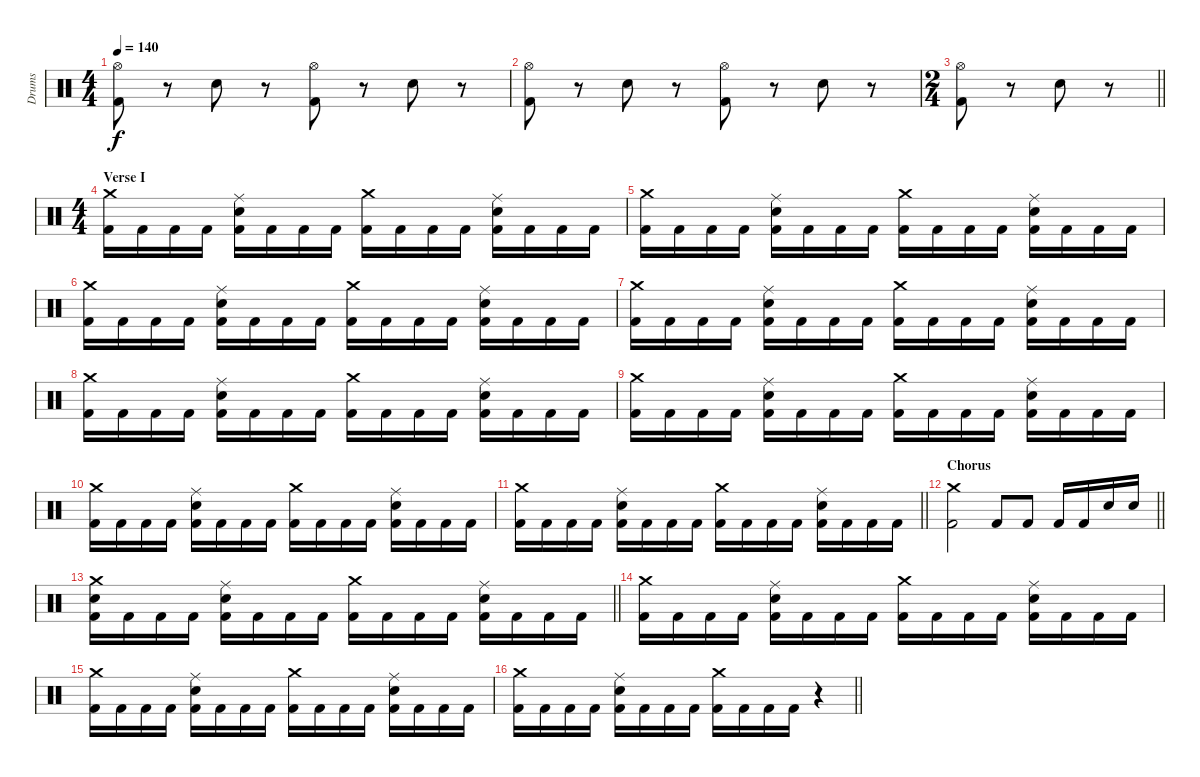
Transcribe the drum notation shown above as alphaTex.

\track ("Drums" "Drums") {instrument percussion}
\staff {score}
\articulation defaults
\ts (4 4)
\tempo 140
\clef neutral
\ks c
("Hi-Hat (open)" "Kick (hit) 2").8{dy f} r.8 "Snare (hit) 2".8 r.8 ("Hi-Hat (open)" "Kick (hit) 2").8 r.8 "Snare (hit) 2".8 r.8 |
("Hi-Hat (open)" "Kick (hit) 2").8 r.8 "Snare (hit) 2".8 r.8 ("Hi-Hat (open)" "Kick (hit) 2").8 r.8 "Snare (hit) 2".8 r.8 |
\ts (2 4)
\barLineRight lightlight
("Hi-Hat (open)" "Kick (hit) 2").8 r.8 "Snare (hit) 2".8 r.8 |
\ts (4 4)
\section ("" "Verse I")
("Crash medium (hit)" "Kick (hit) 2").16 "Kick (hit) 2".16 "Kick (hit) 2".16 "Kick (hit) 2".16 ("Ride (middle)" "Snare (hit) 2" "Kick (hit) 2").16 "Kick (hit) 2".16 "Kick (hit) 2".16 "Kick (hit) 2".16 ("Crash medium (hit)" "Kick (hit) 2").16 "Kick (hit) 2".16 "Kick (hit) 2".16 "Kick (hit) 2".16 ("Ride (middle)" "Snare (hit) 2" "Kick (hit) 2").16 "Kick (hit) 2".16 "Kick (hit) 2".16 "Kick (hit) 2".16 |
("Crash medium (hit)" "Kick (hit) 2").16 "Kick (hit) 2".16 "Kick (hit) 2".16 "Kick (hit) 2".16 ("Ride (middle)" "Snare (hit) 2" "Kick (hit) 2").16 "Kick (hit) 2".16 "Kick (hit) 2".16 "Kick (hit) 2".16 ("Crash medium (hit)" "Kick (hit) 2").16 "Kick (hit) 2".16 "Kick (hit) 2".16 "Kick (hit) 2".16 ("Ride (middle)" "Snare (hit) 2" "Kick (hit) 2").16 "Kick (hit) 2".16 "Kick (hit) 2".16 "Kick (hit) 2".16 |
("Crash medium (hit)" "Kick (hit) 2").16 "Kick (hit) 2".16 "Kick (hit) 2".16 "Kick (hit) 2".16 ("Ride (middle)" "Snare (hit) 2" "Kick (hit) 2").16 "Kick (hit) 2".16 "Kick (hit) 2".16 "Kick (hit) 2".16 ("Crash medium (hit)" "Kick (hit) 2").16 "Kick (hit) 2".16 "Kick (hit) 2".16 "Kick (hit) 2".16 ("Ride (middle)" "Snare (hit) 2" "Kick (hit) 2").16 "Kick (hit) 2".16 "Kick (hit) 2".16 "Kick (hit) 2".16 |
("Crash medium (hit)" "Kick (hit) 2").16 "Kick (hit) 2".16 "Kick (hit) 2".16 "Kick (hit) 2".16 ("Ride (middle)" "Snare (hit) 2" "Kick (hit) 2").16 "Kick (hit) 2".16 "Kick (hit) 2".16 "Kick (hit) 2".16 ("Crash medium (hit)" "Kick (hit) 2").16 "Kick (hit) 2".16 "Kick (hit) 2".16 "Kick (hit) 2".16 ("Ride (middle)" "Snare (hit) 2" "Kick (hit) 2").16 "Kick (hit) 2".16 "Kick (hit) 2".16 "Kick (hit) 2".16 |
("Crash medium (hit)" "Kick (hit) 2").16 "Kick (hit) 2".16 "Kick (hit) 2".16 "Kick (hit) 2".16 ("Ride (middle)" "Snare (hit) 2" "Kick (hit) 2").16 "Kick (hit) 2".16 "Kick (hit) 2".16 "Kick (hit) 2".16 ("Crash medium (hit)" "Kick (hit) 2").16 "Kick (hit) 2".16 "Kick (hit) 2".16 "Kick (hit) 2".16 ("Ride (middle)" "Snare (hit) 2" "Kick (hit) 2").16 "Kick (hit) 2".16 "Kick (hit) 2".16 "Kick (hit) 2".16 |
("Crash medium (hit)" "Kick (hit) 2").16 "Kick (hit) 2".16 "Kick (hit) 2".16 "Kick (hit) 2".16 ("Ride (middle)" "Snare (hit) 2" "Kick (hit) 2").16 "Kick (hit) 2".16 "Kick (hit) 2".16 "Kick (hit) 2".16 ("Crash medium (hit)" "Kick (hit) 2").16 "Kick (hit) 2".16 "Kick (hit) 2".16 "Kick (hit) 2".16 ("Ride (middle)" "Snare (hit) 2" "Kick (hit) 2").16 "Kick (hit) 2".16 "Kick (hit) 2".16 "Kick (hit) 2".16 |
("Crash medium (hit)" "Kick (hit) 2").16 "Kick (hit) 2".16 "Kick (hit) 2".16 "Kick (hit) 2".16 ("Ride (middle)" "Snare (hit) 2" "Kick (hit) 2").16 "Kick (hit) 2".16 "Kick (hit) 2".16 "Kick (hit) 2".16 ("Crash medium (hit)" "Kick (hit) 2").16 "Kick (hit) 2".16 "Kick (hit) 2".16 "Kick (hit) 2".16 ("Ride (middle)" "Snare (hit) 2" "Kick (hit) 2").16 "Kick (hit) 2".16 "Kick (hit) 2".16 "Kick (hit) 2".16 |
\barLineRight lightlight
("Crash medium (hit)" "Kick (hit) 2").16 "Kick (hit) 2".16 "Kick (hit) 2".16 "Kick (hit) 2".16 ("Ride (middle)" "Snare (hit) 2" "Kick (hit) 2").16 "Kick (hit) 2".16 "Kick (hit) 2".16 "Kick (hit) 2".16 ("Crash medium (hit)" "Kick (hit) 2").16 "Kick (hit) 2".16 "Kick (hit) 2".16 "Kick (hit) 2".16 ("Ride (middle)" "Snare (hit) 2" "Kick (hit) 2").16 "Kick (hit) 2".16 "Kick (hit) 2".16 "Kick (hit) 2".16 |
\section ("" "Chorus")
\barLineRight lightlight
("Crash medium (hit)" "Kick (hit) 2").2 "Kick (hit) 2".8 "Kick (hit) 2".8 "Kick (hit) 2".16 "Kick (hit) 2".16 "Snare (hit) 2".16 "Snare (hit) 2".16 |
\barLineRight lightlight
("Crash medium (hit)" "Snare (hit) 2" "Kick (hit) 2").16 "Kick (hit) 2".16 "Kick (hit) 2".16 "Kick (hit) 2".16 ("Ride (middle)" "Snare (hit) 2" "Kick (hit) 2").16 "Kick (hit) 2".16 "Kick (hit) 2".16 "Kick (hit) 2".16 ("Crash medium (hit)" "Kick (hit) 2").16 "Kick (hit) 2".16 "Kick (hit) 2".16 "Kick (hit) 2".16 ("Ride (middle)" "Snare (hit) 2" "Kick (hit) 2").16 "Kick (hit) 2".16 "Kick (hit) 2".16 "Kick (hit) 2".16 |
("Crash medium (hit)" "Kick (hit) 2").16 "Kick (hit) 2".16 "Kick (hit) 2".16 "Kick (hit) 2".16 ("Ride (middle)" "Snare (hit) 2" "Kick (hit) 2").16 "Kick (hit) 2".16 "Kick (hit) 2".16 "Kick (hit) 2".16 ("Crash medium (hit)" "Kick (hit) 2").16 "Kick (hit) 2".16 "Kick (hit) 2".16 "Kick (hit) 2".16 ("Ride (middle)" "Snare (hit) 2" "Kick (hit) 2").16 "Kick (hit) 2".16 "Kick (hit) 2".16 "Kick (hit) 2".16 |
("Crash medium (hit)" "Kick (hit) 2").16 "Kick (hit) 2".16 "Kick (hit) 2".16 "Kick (hit) 2".16 ("Ride (middle)" "Snare (hit) 2" "Kick (hit) 2").16 "Kick (hit) 2".16 "Kick (hit) 2".16 "Kick (hit) 2".16 ("Crash medium (hit)" "Kick (hit) 2").16 "Kick (hit) 2".16 "Kick (hit) 2".16 "Kick (hit) 2".16 ("Ride (middle)" "Snare (hit) 2" "Kick (hit) 2").16 "Kick (hit) 2".16 "Kick (hit) 2".16 "Kick (hit) 2".16 |
\barLineRight lightlight
("Crash medium (hit)" "Kick (hit) 2").16 "Kick (hit) 2".16 "Kick (hit) 2".16 "Kick (hit) 2".16 ("Ride (middle)" "Snare (hit) 2" "Kick (hit) 2").16 "Kick (hit) 2".16 "Kick (hit) 2".16 "Kick (hit) 2".16 ("Crash medium (hit)" "Kick (hit) 2").16 "Kick (hit) 2".16 "Kick (hit) 2".16 "Kick (hit) 2".16 r.4
